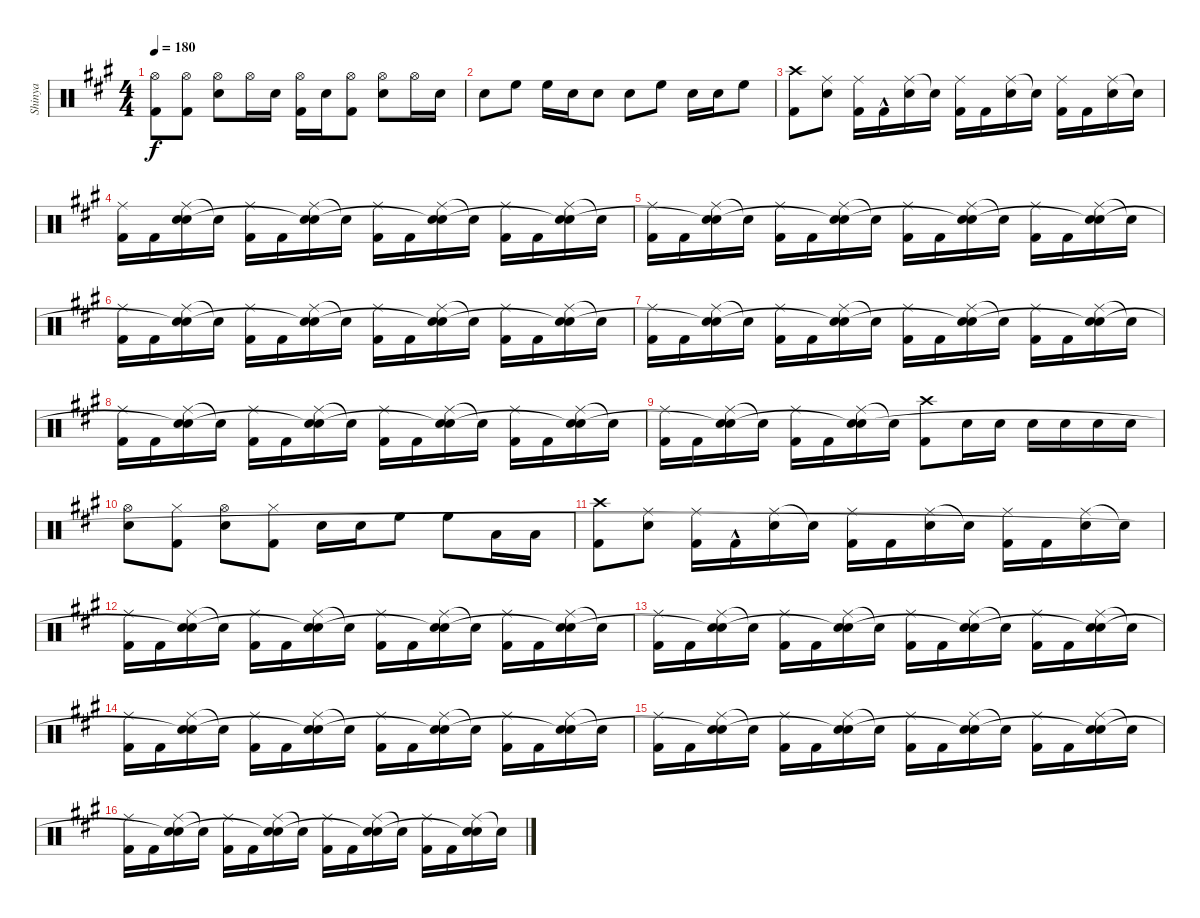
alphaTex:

\track ("Shinya" "Shinya") {instrument percussion}
\staff {score}
\articulation defaults
\ts (4 4)
\tempo 180
\clef neutral
\ks a
("Hi-Hat (open)" "Kick (hit) 2").8{dy f} ("Hi-Hat (open)" "Kick (hit) 2").8 ("Hi-Hat (open)" "Electric Snare (hit)").8 "Hi-Hat (open)".16 "Electric Snare (hit)".16 ("Hi-Hat (open)" "Kick (hit) 2").16 "Electric Snare (hit)".16 ("Hi-Hat (open)" "Kick (hit) 2").8 ("Hi-Hat (open)" "Electric Snare (hit)").8 "Hi-Hat (open)".16 "Electric Snare (hit)".16 |
"Electric Snare (hit)".8 "High Floor Tom (hit)".8 "High Floor Tom (hit)".16 "Electric Snare (hit)".16 "Electric Snare (hit)".8 "Electric Snare (hit)".8 "High Floor Tom (hit)".8 "Electric Snare (hit)".16 "Electric Snare (hit)".16 "High Floor Tom (hit)".8 |
("Crash high (hit)" "Kick (hit) 2").8 ("Ride (middle)" "Electric Snare (hit)").8 ("Ride (middle)" "Kick (hit) 2").16 "Kick (hit) 2"{hac}.16 ("Ride (middle)" "Electric Snare (hit)").16 "Snare (hit)"{t}.16 ("Ride (middle)" "Kick (hit) 2").16 "Kick (hit) 2".16 ("Ride (middle)" "Electric Snare (hit)").16 "Snare (hit)"{t}.16 ("Ride (middle)" "Kick (hit) 2").16 "Kick (hit) 2".16 ("Ride (middle)" "Electric Snare (hit)").16 "Snare (hit)"{t}.16 |
("Ride (middle)" "Kick (hit) 2").16 "Kick (hit) 2".16 ("Ride (middle)" "Electric Snare (hit)" "Snare (hit)").16 "Snare (hit)"{t}.16 ("Ride (middle)" "Kick (hit) 2").16 "Kick (hit) 2".16 ("Ride (middle)" "Electric Snare (hit)" "Snare (hit)"{t}).16 "Snare (hit)"{t}.16 ("Ride (middle)" "Kick (hit) 2").16 "Kick (hit) 2".16 ("Ride (middle)" "Electric Snare (hit)" "Snare (hit)"{t}).16 "Snare (hit)"{t}.16 ("Ride (middle)" "Kick (hit) 2").16 "Kick (hit) 2".16 ("Ride (middle)" "Electric Snare (hit)" "Snare (hit)"{t}).16 "Snare (hit)"{t}.16 |
("Ride (middle)" "Kick (hit) 2").16 "Kick (hit) 2".16 ("Ride (middle)" "Electric Snare (hit)" "Snare (hit)"{t}).16 "Snare (hit)"{t}.16 ("Ride (middle)" "Kick (hit) 2").16 "Kick (hit) 2".16 ("Ride (middle)" "Electric Snare (hit)" "Snare (hit)"{t}).16 "Snare (hit)"{t}.16 ("Ride (middle)" "Kick (hit) 2").16 "Kick (hit) 2".16 ("Ride (middle)" "Electric Snare (hit)" "Snare (hit)"{t}).16 "Snare (hit)"{t}.16 ("Ride (middle)" "Kick (hit) 2").16 "Kick (hit) 2".16 ("Ride (middle)" "Electric Snare (hit)" "Snare (hit)"{t}).16 "Snare (hit)"{t}.16 |
("Ride (middle)" "Kick (hit) 2").16 "Kick (hit) 2".16 ("Ride (middle)" "Electric Snare (hit)" "Snare (hit)"{t}).16 "Snare (hit)"{t}.16 ("Ride (middle)" "Kick (hit) 2").16 "Kick (hit) 2".16 ("Ride (middle)" "Electric Snare (hit)" "Snare (hit)"{t}).16 "Snare (hit)"{t}.16 ("Ride (middle)" "Kick (hit) 2").16 "Kick (hit) 2".16 ("Ride (middle)" "Electric Snare (hit)" "Snare (hit)"{t}).16 "Snare (hit)"{t}.16 ("Ride (middle)" "Kick (hit) 2").16 "Kick (hit) 2".16 ("Ride (middle)" "Electric Snare (hit)" "Snare (hit)"{t}).16 "Snare (hit)"{t}.16 |
("Ride (middle)" "Kick (hit) 2").16 "Kick (hit) 2".16 ("Ride (middle)" "Electric Snare (hit)" "Snare (hit)"{t}).16 "Snare (hit)"{t}.16 ("Ride (middle)" "Kick (hit) 2").16 "Kick (hit) 2".16 ("Ride (middle)" "Electric Snare (hit)" "Snare (hit)"{t}).16 "Snare (hit)"{t}.16 ("Ride (middle)" "Kick (hit) 2").16 "Kick (hit) 2".16 ("Ride (middle)" "Electric Snare (hit)" "Snare (hit)"{t}).16 "Snare (hit)"{t}.16 ("Ride (middle)" "Kick (hit) 2").16 "Kick (hit) 2".16 ("Ride (middle)" "Electric Snare (hit)" "Snare (hit)"{t}).16 "Snare (hit)"{t}.16 |
("Ride (middle)" "Kick (hit) 2").16 "Kick (hit) 2".16 ("Ride (middle)" "Electric Snare (hit)" "Snare (hit)"{t}).16 "Snare (hit)"{t}.16 ("Ride (middle)" "Kick (hit) 2").16 "Kick (hit) 2".16 ("Ride (middle)" "Electric Snare (hit)" "Snare (hit)"{t}).16 "Snare (hit)"{t}.16 ("Ride (middle)" "Kick (hit) 2").16 "Kick (hit) 2".16 ("Ride (middle)" "Electric Snare (hit)" "Snare (hit)"{t}).16 "Snare (hit)"{t}.16 ("Ride (middle)" "Kick (hit) 2").16 "Kick (hit) 2".16 ("Ride (middle)" "Electric Snare (hit)" "Snare (hit)"{t}).16 "Snare (hit)"{t}.16 |
("Ride (middle)" "Kick (hit) 2").16 "Kick (hit) 2".16 ("Ride (middle)" "Electric Snare (hit)" "Snare (hit)"{t}).16 "Snare (hit)"{t}.16 ("Ride (middle)" "Kick (hit) 2").16 "Kick (hit) 2".16 ("Ride (middle)" "Electric Snare (hit)" "Snare (hit)"{t}).16 "Snare (hit)"{t}.16 ("Crash high (hit)" "Kick (hit) 2").8 "Electric Snare (hit)".16 "Electric Snare (hit)".16 "Electric Snare (hit)".16 "Electric Snare (hit)".16 "Electric Snare (hit)".16 "Electric Snare (hit)".16 |
("Hi-Hat (open)" "Electric Snare (hit)").8 ("Hi-Hat (closed)" "Kick (hit) 2").8 ("Hi-Hat (open)" "Electric Snare (hit)").8 ("Hi-Hat (closed)" "Kick (hit) 2").8 "Electric Snare (hit)".16 "Electric Snare (hit)".16 "High Floor Tom (hit)".8 "High Floor Tom (hit)".8 "Low Tom (hit)".16 "Low Tom (hit)".16 |
("Crash high (hit)" "Kick (hit) 2").8 ("Ride (middle)" "Electric Snare (hit)").8 ("Ride (middle)" "Kick (hit) 2").16 "Kick (hit) 2"{hac}.16 ("Ride (middle)" "Electric Snare (hit)").16 "Snare (hit)"{t}.16 ("Ride (middle)" "Kick (hit) 2").16 "Kick (hit) 2".16 ("Ride (middle)" "Electric Snare (hit)").16 "Snare (hit)"{t}.16 ("Ride (middle)" "Kick (hit) 2").16 "Kick (hit) 2".16 ("Ride (middle)" "Electric Snare (hit)").16 "Snare (hit)"{t}.16 |
("Ride (middle)" "Kick (hit) 2").16 "Kick (hit) 2".16 ("Ride (middle)" "Electric Snare (hit)" "Snare (hit)"{t}).16 "Snare (hit)"{t}.16 ("Ride (middle)" "Kick (hit) 2").16 "Kick (hit) 2".16 ("Ride (middle)" "Electric Snare (hit)" "Snare (hit)"{t}).16 "Snare (hit)"{t}.16 ("Ride (middle)" "Kick (hit) 2").16 "Kick (hit) 2".16 ("Ride (middle)" "Electric Snare (hit)" "Snare (hit)"{t}).16 "Snare (hit)"{t}.16 ("Ride (middle)" "Kick (hit) 2").16 "Kick (hit) 2".16 ("Ride (middle)" "Electric Snare (hit)" "Snare (hit)"{t}).16 "Snare (hit)"{t}.16 |
("Ride (middle)" "Kick (hit) 2").16 "Kick (hit) 2".16 ("Ride (middle)" "Electric Snare (hit)" "Snare (hit)"{t}).16 "Snare (hit)"{t}.16 ("Ride (middle)" "Kick (hit) 2").16 "Kick (hit) 2".16 ("Ride (middle)" "Electric Snare (hit)" "Snare (hit)"{t}).16 "Snare (hit)"{t}.16 ("Ride (middle)" "Kick (hit) 2").16 "Kick (hit) 2".16 ("Ride (middle)" "Electric Snare (hit)" "Snare (hit)"{t}).16 "Snare (hit)"{t}.16 ("Ride (middle)" "Kick (hit) 2").16 "Kick (hit) 2".16 ("Ride (middle)" "Electric Snare (hit)" "Snare (hit)"{t}).16 "Snare (hit)"{t}.16 |
("Ride (middle)" "Kick (hit) 2").16 "Kick (hit) 2".16 ("Ride (middle)" "Electric Snare (hit)" "Snare (hit)"{t}).16 "Snare (hit)"{t}.16 ("Ride (middle)" "Kick (hit) 2").16 "Kick (hit) 2".16 ("Ride (middle)" "Electric Snare (hit)" "Snare (hit)"{t}).16 "Snare (hit)"{t}.16 ("Ride (middle)" "Kick (hit) 2").16 "Kick (hit) 2".16 ("Ride (middle)" "Electric Snare (hit)" "Snare (hit)"{t}).16 "Snare (hit)"{t}.16 ("Ride (middle)" "Kick (hit) 2").16 "Kick (hit) 2".16 ("Ride (middle)" "Electric Snare (hit)" "Snare (hit)"{t}).16 "Snare (hit)"{t}.16 |
("Ride (middle)" "Kick (hit) 2").16 "Kick (hit) 2".16 ("Ride (middle)" "Electric Snare (hit)" "Snare (hit)"{t}).16 "Snare (hit)"{t}.16 ("Ride (middle)" "Kick (hit) 2").16 "Kick (hit) 2".16 ("Ride (middle)" "Electric Snare (hit)" "Snare (hit)"{t}).16 "Snare (hit)"{t}.16 ("Ride (middle)" "Kick (hit) 2").16 "Kick (hit) 2".16 ("Ride (middle)" "Electric Snare (hit)" "Snare (hit)"{t}).16 "Snare (hit)"{t}.16 ("Ride (middle)" "Kick (hit) 2").16 "Kick (hit) 2".16 ("Ride (middle)" "Electric Snare (hit)" "Snare (hit)"{t}).16 "Snare (hit)"{t}.16 |
("Ride (middle)" "Kick (hit) 2").16 "Kick (hit) 2".16 ("Ride (middle)" "Electric Snare (hit)" "Snare (hit)"{t}).16 "Snare (hit)"{t}.16 ("Ride (middle)" "Kick (hit) 2").16 "Kick (hit) 2".16 ("Ride (middle)" "Electric Snare (hit)" "Snare (hit)"{t}).16 "Snare (hit)"{t}.16 ("Ride (middle)" "Kick (hit) 2").16 "Kick (hit) 2".16 ("Ride (middle)" "Electric Snare (hit)" "Snare (hit)"{t}).16 "Snare (hit)"{t}.16 ("Ride (middle)" "Kick (hit) 2").16 "Kick (hit) 2".16 ("Ride (middle)" "Electric Snare (hit)" "Snare (hit)"{t}).16 "Snare (hit)"{t}.16
